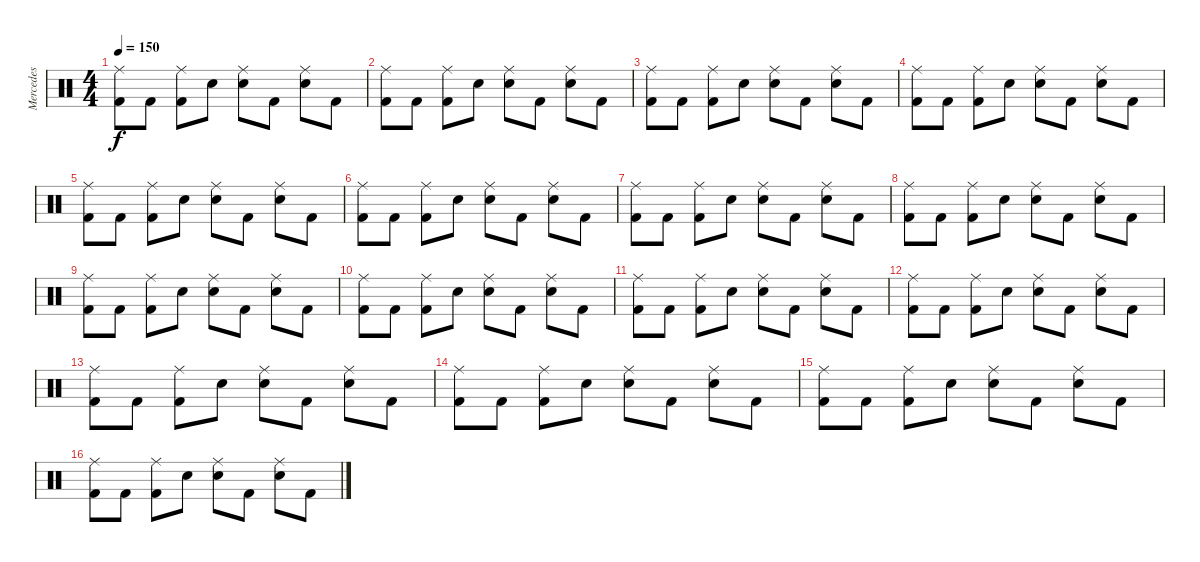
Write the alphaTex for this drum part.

\track ("Mercedes" "Mercedes") {instrument percussion}
\staff {score}
\articulation defaults
\ts (4 4)
\tempo 150
\clef neutral
\ks c
("Kick (hit) 2" "Ride (middle)").8{dy f} "Kick (hit) 2".8 ("Kick (hit) 2" "Ride (middle)").8 "Snare (hit) 2".8 ("Snare (hit) 2" "Ride (middle)").8 "Kick (hit) 2".8 ("Snare (hit) 2" "Ride (middle)").8 "Kick (hit) 2".8 |
("Kick (hit) 2" "Ride (middle)").8 "Kick (hit) 2".8 ("Kick (hit) 2" "Ride (middle)").8 "Snare (hit) 2".8 ("Snare (hit) 2" "Ride (middle)").8 "Kick (hit) 2".8 ("Snare (hit) 2" "Ride (middle)").8 "Kick (hit) 2".8 |
("Kick (hit) 2" "Ride (middle)").8 "Kick (hit) 2".8 ("Kick (hit) 2" "Ride (middle)").8 "Snare (hit) 2".8 ("Snare (hit) 2" "Ride (middle)").8 "Kick (hit) 2".8 ("Snare (hit) 2" "Ride (middle)").8 "Kick (hit) 2".8 |
("Kick (hit) 2" "Ride (middle)").8 "Kick (hit) 2".8 ("Kick (hit) 2" "Ride (middle)").8 "Snare (hit) 2".8 ("Snare (hit) 2" "Ride (middle)").8 "Kick (hit) 2".8 ("Snare (hit) 2" "Ride (middle)").8 "Kick (hit) 2".8 |
("Kick (hit) 2" "Ride (middle)").8 "Kick (hit) 2".8 ("Kick (hit) 2" "Ride (middle)").8 "Snare (hit) 2".8 ("Snare (hit) 2" "Ride (middle)").8 "Kick (hit) 2".8 ("Snare (hit) 2" "Ride (middle)").8 "Kick (hit) 2".8 |
("Kick (hit) 2" "Ride (middle)").8 "Kick (hit) 2".8 ("Kick (hit) 2" "Ride (middle)").8 "Snare (hit) 2".8 ("Snare (hit) 2" "Ride (middle)").8 "Kick (hit) 2".8 ("Snare (hit) 2" "Ride (middle)").8 "Kick (hit) 2".8 |
("Kick (hit) 2" "Ride (middle)").8 "Kick (hit) 2".8 ("Kick (hit) 2" "Ride (middle)").8 "Snare (hit) 2".8 ("Snare (hit) 2" "Ride (middle)").8 "Kick (hit) 2".8 ("Snare (hit) 2" "Ride (middle)").8 "Kick (hit) 2".8 |
("Kick (hit) 2" "Ride (middle)").8 "Kick (hit) 2".8 ("Kick (hit) 2" "Ride (middle)").8 "Snare (hit) 2".8 ("Snare (hit) 2" "Ride (middle)").8 "Kick (hit) 2".8 ("Snare (hit) 2" "Ride (middle)").8 "Kick (hit) 2".8 |
("Kick (hit) 2" "Ride (middle)").8 "Kick (hit) 2".8 ("Kick (hit) 2" "Ride (middle)").8 "Snare (hit) 2".8 ("Snare (hit) 2" "Ride (middle)").8 "Kick (hit) 2".8 ("Snare (hit) 2" "Ride (middle)").8 "Kick (hit) 2".8 |
("Kick (hit) 2" "Ride (middle)").8 "Kick (hit) 2".8 ("Kick (hit) 2" "Ride (middle)").8 "Snare (hit) 2".8 ("Snare (hit) 2" "Ride (middle)").8 "Kick (hit) 2".8 ("Snare (hit) 2" "Ride (middle)").8 "Kick (hit) 2".8 |
("Kick (hit) 2" "Ride (middle)").8 "Kick (hit) 2".8 ("Kick (hit) 2" "Ride (middle)").8 "Snare (hit) 2".8 ("Snare (hit) 2" "Ride (middle)").8 "Kick (hit) 2".8 ("Snare (hit) 2" "Ride (middle)").8 "Kick (hit) 2".8 |
("Kick (hit) 2" "Ride (middle)").8 "Kick (hit) 2".8 ("Kick (hit) 2" "Ride (middle)").8 "Snare (hit) 2".8 ("Snare (hit) 2" "Ride (middle)").8 "Kick (hit) 2".8 ("Snare (hit) 2" "Ride (middle)").8 "Kick (hit) 2".8 |
("Kick (hit) 2" "Ride (middle)").8 "Kick (hit) 2".8 ("Kick (hit) 2" "Ride (middle)").8 "Snare (hit) 2".8 ("Snare (hit) 2" "Ride (middle)").8 "Kick (hit) 2".8 ("Snare (hit) 2" "Ride (middle)").8 "Kick (hit) 2".8 |
("Kick (hit) 2" "Ride (middle)").8 "Kick (hit) 2".8 ("Kick (hit) 2" "Ride (middle)").8 "Snare (hit) 2".8 ("Snare (hit) 2" "Ride (middle)").8 "Kick (hit) 2".8 ("Snare (hit) 2" "Ride (middle)").8 "Kick (hit) 2".8 |
("Kick (hit) 2" "Ride (middle)").8 "Kick (hit) 2".8 ("Kick (hit) 2" "Ride (middle)").8 "Snare (hit) 2".8 ("Snare (hit) 2" "Ride (middle)").8 "Kick (hit) 2".8 ("Snare (hit) 2" "Ride (middle)").8 "Kick (hit) 2".8 |
("Kick (hit) 2" "Ride (middle)").8 "Kick (hit) 2".8 ("Kick (hit) 2" "Ride (middle)").8 "Snare (hit) 2".8 ("Snare (hit) 2" "Ride (middle)").8 "Kick (hit) 2".8 ("Snare (hit) 2" "Ride (middle)").8 "Kick (hit) 2".8
